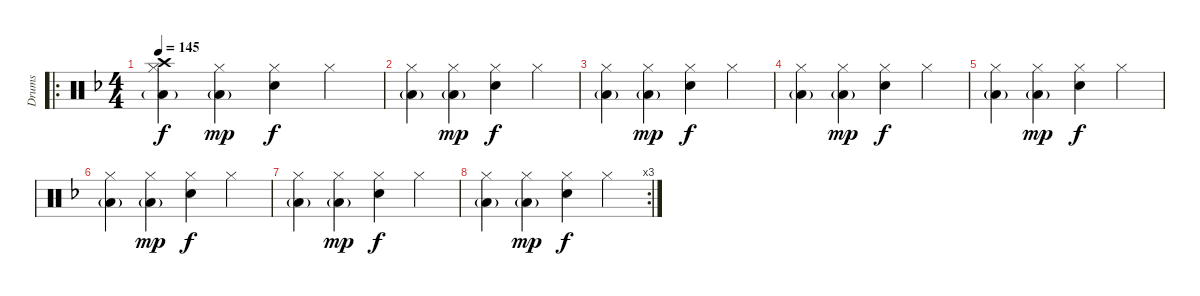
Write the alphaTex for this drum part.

\track ("Drums" "Drums") {instrument percussion}
\staff {score}
\articulation defaults
\ro
\ts (4 4)
\tempo 145
\clef neutral
\ks f
("Hi-Hat (closed)" "Low Tom (hit)"{g} "Crash high (hit)").4{dy f} ("Hi-Hat (closed)" "Low Tom (hit)"{g}).4{dy mp} ("Hi-Hat (closed)" "Snare (hit) 2").4{dy f} "Hi-Hat (closed)".4 |
("Hi-Hat (closed)" "Low Tom (hit)"{g}).4 ("Hi-Hat (closed)" "Low Tom (hit)"{g}).4{dy mp} ("Hi-Hat (closed)" "Snare (hit) 2").4{dy f} "Hi-Hat (closed)".4 |
("Hi-Hat (closed)" "Low Tom (hit)"{g}).4 ("Hi-Hat (closed)" "Low Tom (hit)"{g}).4{dy mp} ("Hi-Hat (closed)" "Snare (hit) 2").4{dy f} "Hi-Hat (closed)".4 |
("Hi-Hat (closed)" "Low Tom (hit)"{g}).4 ("Hi-Hat (closed)" "Low Tom (hit)"{g}).4{dy mp} ("Hi-Hat (closed)" "Snare (hit) 2").4{dy f} "Hi-Hat (closed)".4 |
("Hi-Hat (closed)" "Low Tom (hit)"{g}).4 ("Hi-Hat (closed)" "Low Tom (hit)"{g}).4{dy mp} ("Hi-Hat (closed)" "Snare (hit) 2").4{dy f} "Hi-Hat (closed)".4 |
("Hi-Hat (closed)" "Low Tom (hit)"{g}).4 ("Hi-Hat (closed)" "Low Tom (hit)"{g}).4{dy mp} ("Hi-Hat (closed)" "Snare (hit) 2").4{dy f} "Hi-Hat (closed)".4 |
("Hi-Hat (closed)" "Low Tom (hit)"{g}).4 ("Hi-Hat (closed)" "Low Tom (hit)"{g}).4{dy mp} ("Hi-Hat (closed)" "Snare (hit) 2").4{dy f} "Hi-Hat (closed)".4 |
\rc 3
("Hi-Hat (closed)" "Low Tom (hit)"{g}).4 ("Hi-Hat (closed)" "Low Tom (hit)"{g}).4{dy mp} ("Hi-Hat (closed)" "Snare (hit) 2").4{dy f} "Hi-Hat (closed)".4
